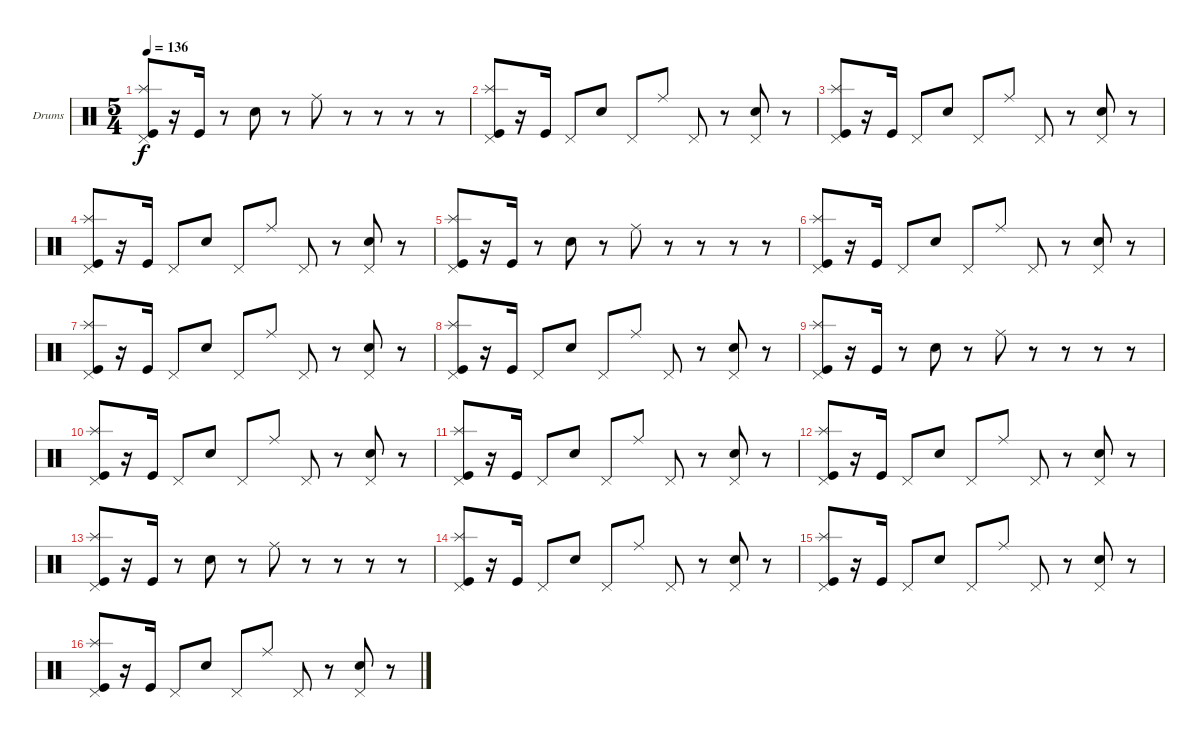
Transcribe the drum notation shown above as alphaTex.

\bracketExtendMode groupsimilarinstruments
\firstSystemTrackNameOrientation horizontal
\otherSystemsTrackNameOrientation horizontal
\track ("Drumkit" "Drums") {instrument percussion}
\staff {score}
\articulation defaults
\ts (5 4)
\tempo 136
\clef neutral
\ks c
("Pedal Hi-Hat (hit)" "Splash (hit)" "Kick (hit)").8{dy f} r.16 "Kick (hit)".16 r.8 "Snare (hit) 2".8 r.8 "Ride (middle)".8 r.8 r.8 r.8 r.8 |
("Kick (hit)" "Pedal Hi-Hat (hit)" "Splash (hit)").8 r.16 "Kick (hit)".16 "Pedal Hi-Hat (hit)".8 "Snare (hit) 2".8 "Pedal Hi-Hat (hit)".8 "Ride (middle)".8 "Pedal Hi-Hat (hit)".8 r.8 ("Snare (hit) 2" "Pedal Hi-Hat (hit)").8 r.8 |
("Pedal Hi-Hat (hit)" "Splash (hit)" "Kick (hit)").8 r.16 "Kick (hit)".16 "Pedal Hi-Hat (hit)".8 "Snare (hit) 2".8 "Pedal Hi-Hat (hit)".8 "Ride (middle)".8 "Pedal Hi-Hat (hit)".8 r.8 ("Snare (hit) 2" "Pedal Hi-Hat (hit)").8 r.8 |
("Kick (hit)" "Pedal Hi-Hat (hit)" "Splash (hit)").8 r.16 "Kick (hit)".16 "Pedal Hi-Hat (hit)".8 "Snare (hit) 2".8 "Pedal Hi-Hat (hit)".8 "Ride (middle)".8 "Pedal Hi-Hat (hit)".8 r.8 ("Snare (hit) 2" "Pedal Hi-Hat (hit)").8 r.8 |
("Pedal Hi-Hat (hit)" "Splash (hit)" "Kick (hit)").8 r.16 "Kick (hit)".16 r.8 "Snare (hit) 2".8 r.8 "Ride (middle)".8 r.8 r.8 r.8 r.8 |
("Kick (hit)" "Pedal Hi-Hat (hit)" "Splash (hit)").8 r.16 "Kick (hit)".16 "Pedal Hi-Hat (hit)".8 "Snare (hit) 2".8 "Pedal Hi-Hat (hit)".8 "Ride (middle)".8 "Pedal Hi-Hat (hit)".8 r.8 ("Snare (hit) 2" "Pedal Hi-Hat (hit)").8 r.8 |
("Pedal Hi-Hat (hit)" "Splash (hit)" "Kick (hit)").8 r.16 "Kick (hit)".16 "Pedal Hi-Hat (hit)".8 "Snare (hit) 2".8 "Pedal Hi-Hat (hit)".8 "Ride (middle)".8 "Pedal Hi-Hat (hit)".8 r.8 ("Snare (hit) 2" "Pedal Hi-Hat (hit)").8 r.8 |
("Kick (hit)" "Pedal Hi-Hat (hit)" "Splash (hit)").8 r.16 "Kick (hit)".16 "Pedal Hi-Hat (hit)".8 "Snare (hit) 2".8 "Pedal Hi-Hat (hit)".8 "Ride (middle)".8 "Pedal Hi-Hat (hit)".8 r.8 ("Snare (hit) 2" "Pedal Hi-Hat (hit)").8 r.8 |
("Pedal Hi-Hat (hit)" "Splash (hit)" "Kick (hit)").8 r.16 "Kick (hit)".16 r.8 "Snare (hit) 2".8 r.8 "Ride (middle)".8 r.8 r.8 r.8 r.8 |
("Kick (hit)" "Pedal Hi-Hat (hit)" "Splash (hit)").8 r.16 "Kick (hit)".16 "Pedal Hi-Hat (hit)".8 "Snare (hit) 2".8 "Pedal Hi-Hat (hit)".8 "Ride (middle)".8 "Pedal Hi-Hat (hit)".8 r.8 ("Snare (hit) 2" "Pedal Hi-Hat (hit)").8 r.8 |
("Pedal Hi-Hat (hit)" "Splash (hit)" "Kick (hit)").8 r.16 "Kick (hit)".16 "Pedal Hi-Hat (hit)".8 "Snare (hit) 2".8 "Pedal Hi-Hat (hit)".8 "Ride (middle)".8 "Pedal Hi-Hat (hit)".8 r.8 ("Snare (hit) 2" "Pedal Hi-Hat (hit)").8 r.8 |
("Kick (hit)" "Pedal Hi-Hat (hit)" "Splash (hit)").8 r.16 "Kick (hit)".16 "Pedal Hi-Hat (hit)".8 "Snare (hit) 2".8 "Pedal Hi-Hat (hit)".8 "Ride (middle)".8 "Pedal Hi-Hat (hit)".8 r.8 ("Snare (hit) 2" "Pedal Hi-Hat (hit)").8 r.8 |
("Pedal Hi-Hat (hit)" "Splash (hit)" "Kick (hit)").8 r.16 "Kick (hit)".16 r.8 "Snare (hit) 2".8 r.8 "Ride (middle)".8 r.8 r.8 r.8 r.8 |
("Kick (hit)" "Pedal Hi-Hat (hit)" "Splash (hit)").8 r.16 "Kick (hit)".16 "Pedal Hi-Hat (hit)".8 "Snare (hit) 2".8 "Pedal Hi-Hat (hit)".8 "Ride (middle)".8 "Pedal Hi-Hat (hit)".8 r.8 ("Snare (hit) 2" "Pedal Hi-Hat (hit)").8 r.8 |
("Pedal Hi-Hat (hit)" "Splash (hit)" "Kick (hit)").8 r.16 "Kick (hit)".16 "Pedal Hi-Hat (hit)".8 "Snare (hit) 2".8 "Pedal Hi-Hat (hit)".8 "Ride (middle)".8 "Pedal Hi-Hat (hit)".8 r.8 ("Snare (hit) 2" "Pedal Hi-Hat (hit)").8 r.8 |
("Kick (hit)" "Pedal Hi-Hat (hit)" "Splash (hit)").8 r.16 "Kick (hit)".16 "Pedal Hi-Hat (hit)".8 "Snare (hit) 2".8 "Pedal Hi-Hat (hit)".8 "Ride (middle)".8 "Pedal Hi-Hat (hit)".8 r.8 ("Snare (hit) 2" "Pedal Hi-Hat (hit)").8 r.8
